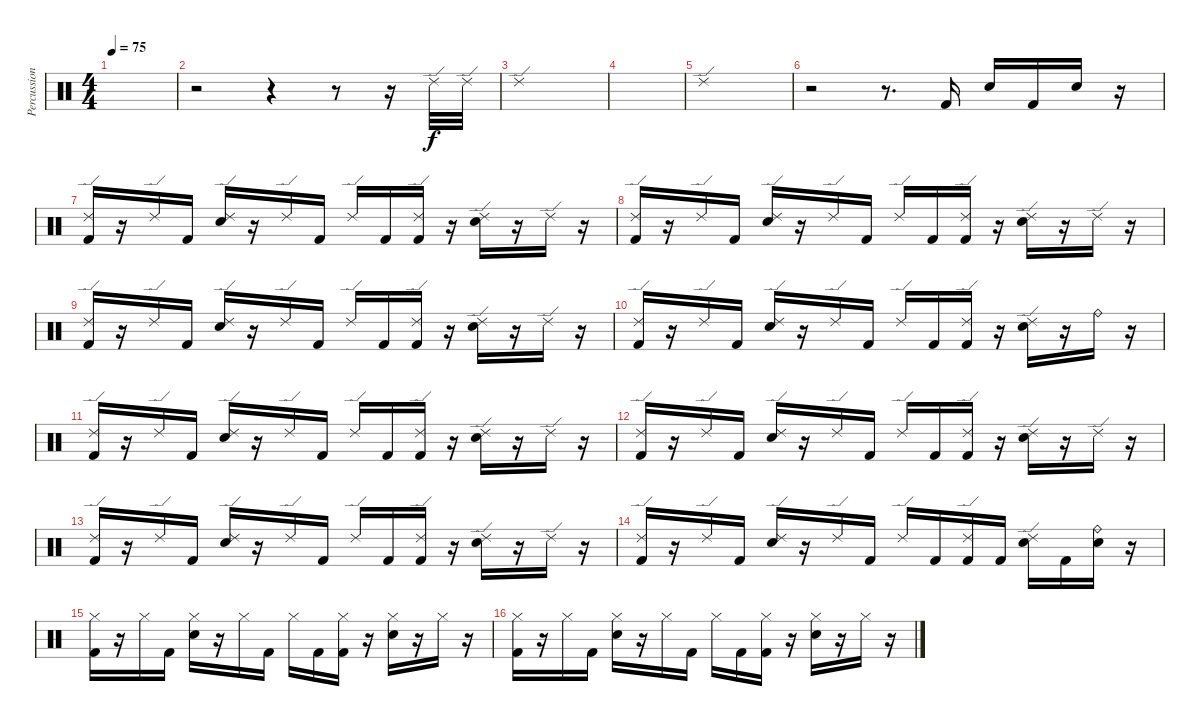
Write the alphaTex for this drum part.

\track ("Percussion" "Percussion") {instrument percussion}
\staff {score}
\articulation defaults
\ts (4 4)
\tempo 75
\clef neutral
\ks c
|
r.2 r.4 r.8 r.16 "Ride (edge) 2".32 "Ride (edge) 2".32 |
"Ride (edge) 2".1 |
|
"Ride (edge) 2".1 |
r.2 r.8{d} "Kick (hit) 2".16 "Snare (hit) 2".16 "Kick (hit) 2".16 "Snare (hit) 2".16 r.16 |
("Ride (edge) 2" "Kick (hit) 2").16 r.16 "Ride (edge) 2".16 "Kick (hit) 2".16 ("Ride (edge) 2" "Snare (hit) 2").16 r.16 "Ride (edge) 2".16 "Kick (hit) 2".16 "Ride (edge) 2".16 "Kick (hit) 2".16 ("Ride (edge) 2" "Kick (hit) 2").16 r.16 ("Ride (edge) 2" "Snare (hit) 2").16 r.16 "Ride (edge) 2".16 r.16 |
("Ride (edge) 2" "Kick (hit) 2").16 r.16 "Ride (edge) 2".16 "Kick (hit) 2".16 ("Ride (edge) 2" "Snare (hit) 2").16 r.16 "Ride (edge) 2".16 "Kick (hit) 2".16 "Ride (edge) 2".16 "Kick (hit) 2".16 ("Ride (edge) 2" "Kick (hit) 2").16 r.16 ("Ride (edge) 2" "Snare (hit) 2").16 r.16 "Ride (edge) 2".16 r.16 |
("Ride (edge) 2" "Kick (hit) 2").16 r.16 "Ride (edge) 2".16 "Kick (hit) 2".16 ("Ride (edge) 2" "Snare (hit) 2").16 r.16 "Ride (edge) 2".16 "Kick (hit) 2".16 "Ride (edge) 2".16 "Kick (hit) 2".16 ("Ride (edge) 2" "Kick (hit) 2").16 r.16 ("Ride (edge) 2" "Snare (hit) 2").16 r.16 "Ride (edge) 2".16 r.16 |
("Ride (edge) 2" "Kick (hit) 2").16 r.16 "Ride (edge) 2".16 "Kick (hit) 2".16 ("Ride (edge) 2" "Snare (hit) 2").16 r.16 "Ride (edge) 2".16 "Kick (hit) 2".16 "Ride (edge) 2".16 "Kick (hit) 2".16 ("Ride (edge) 2" "Kick (hit) 2").16 r.16 ("Ride (edge) 2" "Snare (hit) 2").16 r.16 "Ride (bell)".16 r.16 |
("Ride (edge) 2" "Kick (hit) 2").16 r.16 "Ride (edge) 2".16 "Kick (hit) 2".16 ("Ride (edge) 2" "Snare (hit) 2").16 r.16 "Ride (edge) 2".16 "Kick (hit) 2".16 "Ride (edge) 2".16 "Kick (hit) 2".16 ("Ride (edge) 2" "Kick (hit) 2").16 r.16 ("Ride (edge) 2" "Snare (hit) 2").16 r.16 "Ride (edge) 2".16 r.16 |
("Ride (edge) 2" "Kick (hit) 2").16 r.16 "Ride (edge) 2".16 "Kick (hit) 2".16 ("Ride (edge) 2" "Snare (hit) 2").16 r.16 "Ride (edge) 2".16 "Kick (hit) 2".16 "Ride (edge) 2".16 "Kick (hit) 2".16 ("Ride (edge) 2" "Kick (hit) 2").16 r.16 ("Ride (edge) 2" "Snare (hit) 2").16 r.16 "Ride (edge) 2".16 r.16 |
("Ride (edge) 2" "Kick (hit) 2").16 r.16 "Ride (edge) 2".16 "Kick (hit) 2".16 ("Ride (edge) 2" "Snare (hit) 2").16 r.16 "Ride (edge) 2".16 "Kick (hit) 2".16 "Ride (edge) 2".16 "Kick (hit) 2".16 ("Ride (edge) 2" "Kick (hit) 2").16 r.16 ("Ride (edge) 2" "Snare (hit) 2").16 r.16 "Ride (edge) 2".16 r.16 |
("Ride (edge) 2" "Kick (hit) 2").16 r.16 "Ride (edge) 2".16 "Kick (hit) 2".16 ("Ride (edge) 2" "Snare (hit) 2").16 r.16 "Ride (edge) 2".16 "Kick (hit) 2".16 "Ride (edge) 2".16 "Kick (hit) 2".16 ("Ride (edge) 2" "Kick (hit) 2").16 "Kick (hit) 2".16 ("Ride (edge) 2" "Snare (hit) 2").16 "Kick (hit) 2".16 ("Ride (bell)" "Snare (hit) 2").16 r.16 |
("Hi-Hat (closed)" "Kick (hit) 2").16 r.16 "Hi-Hat (closed)".16 "Kick (hit) 2".16 ("Hi-Hat (closed)" "Snare (hit) 2").16 r.16 "Hi-Hat (closed)".16 "Kick (hit) 2".16 "Hi-Hat (closed)".16 "Kick (hit) 2".16 ("Hi-Hat (closed)" "Kick (hit) 2").16 r.16 ("Hi-Hat (closed)" "Snare (hit) 2").16 r.16 "Hi-Hat (closed)".16 r.16 |
("Hi-Hat (closed)" "Kick (hit) 2").16 r.16 "Hi-Hat (closed)".16 "Kick (hit) 2".16 ("Hi-Hat (closed)" "Snare (hit) 2").16 r.16 "Hi-Hat (closed)".16 "Kick (hit) 2".16 "Hi-Hat (closed)".16 "Kick (hit) 2".16 ("Hi-Hat (closed)" "Kick (hit) 2").16 r.16 ("Hi-Hat (closed)" "Snare (hit) 2").16 r.16 "Hi-Hat (closed)".16 r.16
